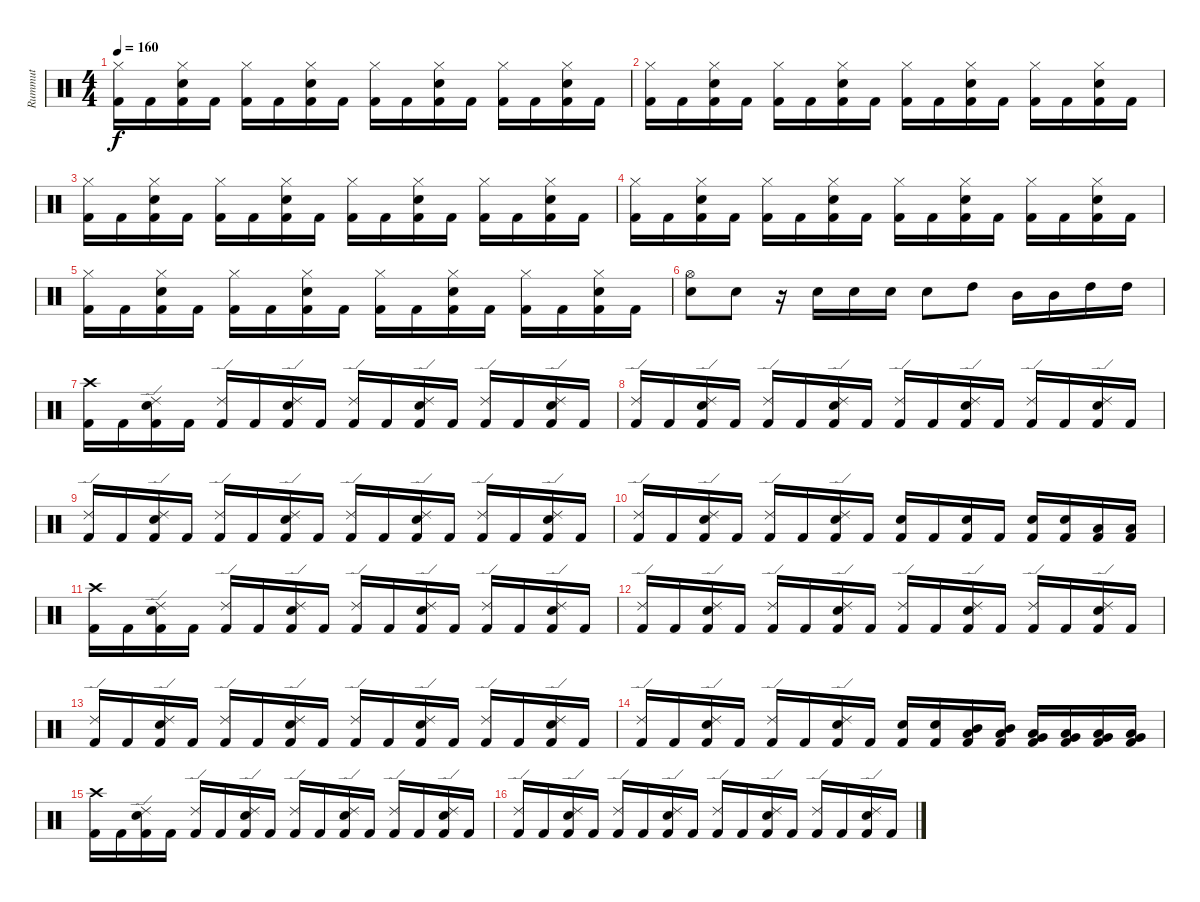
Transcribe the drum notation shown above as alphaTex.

\track ("Rummut" "Rummut") {instrument percussion}
\staff {score}
\articulation defaults
\ts (4 4)
\tempo 160
\clef neutral
\ks c
("Hi-Hat (closed)" "Kick (hit) 2").16{dy f} "Kick (hit) 2".16 ("Hi-Hat (closed)" "Snare (hit) 2" "Kick (hit) 2").16 "Kick (hit) 2".16 ("Hi-Hat (closed)" "Kick (hit) 2").16 "Kick (hit) 2".16 ("Hi-Hat (closed)" "Snare (hit) 2" "Kick (hit) 2").16 "Kick (hit) 2".16 ("Hi-Hat (closed)" "Kick (hit) 2").16 "Kick (hit) 2".16 ("Hi-Hat (closed)" "Snare (hit) 2" "Kick (hit) 2").16 "Kick (hit) 2".16 ("Hi-Hat (closed)" "Kick (hit) 2").16 "Kick (hit) 2".16 ("Hi-Hat (closed)" "Snare (hit) 2" "Kick (hit) 2").16 "Kick (hit) 2".16 |
("Hi-Hat (closed)" "Kick (hit) 2").16 "Kick (hit) 2".16 ("Hi-Hat (closed)" "Snare (hit) 2" "Kick (hit) 2").16 "Kick (hit) 2".16 ("Hi-Hat (closed)" "Kick (hit) 2").16 "Kick (hit) 2".16 ("Hi-Hat (closed)" "Snare (hit) 2" "Kick (hit) 2").16 "Kick (hit) 2".16 ("Hi-Hat (closed)" "Kick (hit) 2").16 "Kick (hit) 2".16 ("Hi-Hat (closed)" "Snare (hit) 2" "Kick (hit) 2").16 "Kick (hit) 2".16 ("Hi-Hat (closed)" "Kick (hit) 2").16 "Kick (hit) 2".16 ("Hi-Hat (closed)" "Snare (hit) 2" "Kick (hit) 2").16 "Kick (hit) 2".16 |
("Hi-Hat (closed)" "Kick (hit) 2").16 "Kick (hit) 2".16 ("Hi-Hat (closed)" "Snare (hit) 2" "Kick (hit) 2").16 "Kick (hit) 2".16 ("Hi-Hat (closed)" "Kick (hit) 2").16 "Kick (hit) 2".16 ("Hi-Hat (closed)" "Snare (hit) 2" "Kick (hit) 2").16 "Kick (hit) 2".16 ("Hi-Hat (closed)" "Kick (hit) 2").16 "Kick (hit) 2".16 ("Hi-Hat (closed)" "Snare (hit) 2" "Kick (hit) 2").16 "Kick (hit) 2".16 ("Hi-Hat (closed)" "Kick (hit) 2").16 "Kick (hit) 2".16 ("Hi-Hat (closed)" "Snare (hit) 2" "Kick (hit) 2").16 "Kick (hit) 2".16 |
("Hi-Hat (closed)" "Kick (hit) 2").16 "Kick (hit) 2".16 ("Hi-Hat (closed)" "Snare (hit) 2" "Kick (hit) 2").16 "Kick (hit) 2".16 ("Hi-Hat (closed)" "Kick (hit) 2").16 "Kick (hit) 2".16 ("Hi-Hat (closed)" "Snare (hit) 2" "Kick (hit) 2").16 "Kick (hit) 2".16 ("Hi-Hat (closed)" "Kick (hit) 2").16 "Kick (hit) 2".16 ("Hi-Hat (closed)" "Snare (hit) 2" "Kick (hit) 2").16 "Kick (hit) 2".16 ("Hi-Hat (closed)" "Kick (hit) 2").16 "Kick (hit) 2".16 ("Hi-Hat (closed)" "Snare (hit) 2" "Kick (hit) 2").16 "Kick (hit) 2".16 |
("Hi-Hat (closed)" "Kick (hit) 2").16 "Kick (hit) 2".16 ("Hi-Hat (closed)" "Snare (hit) 2" "Kick (hit) 2").16 "Kick (hit) 2".16 ("Hi-Hat (closed)" "Kick (hit) 2").16 "Kick (hit) 2".16 ("Hi-Hat (closed)" "Snare (hit) 2" "Kick (hit) 2").16 "Kick (hit) 2".16 ("Hi-Hat (closed)" "Kick (hit) 2").16 "Kick (hit) 2".16 ("Hi-Hat (closed)" "Snare (hit) 2" "Kick (hit) 2").16 "Kick (hit) 2".16 ("Hi-Hat (closed)" "Kick (hit) 2").16 "Kick (hit) 2".16 ("Hi-Hat (closed)" "Snare (hit) 2" "Kick (hit) 2").16 "Kick (hit) 2".16 |
("Snare (hit) 2" "Hi-Hat (open)").8 "Snare (hit) 2".8 r.16 "Snare (hit) 2".16 "Snare (hit) 2".16 "Snare (hit) 2".16 "Snare (hit) 2".8 "High Tom (hit)".8 "Mid Tom (hit)".16 "Mid Tom (hit)".16 "High Tom (hit)".16 "High Tom (hit)".16 |
("Crash high (hit)" "Kick (hit) 2").16 "Kick (hit) 2".16 ("Ride (edge) 2" "Snare (hit) 2" "Kick (hit) 2").16 "Kick (hit) 2".16 ("Ride (edge) 2" "Kick (hit) 2").16 "Kick (hit) 2".16 ("Ride (edge) 2" "Snare (hit) 2" "Kick (hit) 2").16 "Kick (hit) 2".16 ("Ride (edge) 2" "Kick (hit) 2").16 "Kick (hit) 2".16 ("Ride (edge) 2" "Snare (hit) 2" "Kick (hit) 2").16 "Kick (hit) 2".16 ("Ride (edge) 2" "Kick (hit) 2").16 "Kick (hit) 2".16 ("Ride (edge) 2" "Snare (hit) 2" "Kick (hit) 2").16 "Kick (hit) 2".16 |
("Ride (edge) 2" "Kick (hit) 2").16 "Kick (hit) 2".16 ("Ride (edge) 2" "Snare (hit) 2" "Kick (hit) 2").16 "Kick (hit) 2".16 ("Ride (edge) 2" "Kick (hit) 2").16 "Kick (hit) 2".16 ("Ride (edge) 2" "Snare (hit) 2" "Kick (hit) 2").16 "Kick (hit) 2".16 ("Ride (edge) 2" "Kick (hit) 2").16 "Kick (hit) 2".16 ("Ride (edge) 2" "Snare (hit) 2" "Kick (hit) 2").16 "Kick (hit) 2".16 ("Ride (edge) 2" "Kick (hit) 2").16 "Kick (hit) 2".16 ("Ride (edge) 2" "Snare (hit) 2" "Kick (hit) 2").16 "Kick (hit) 2".16 |
("Ride (edge) 2" "Kick (hit) 2").16 "Kick (hit) 2".16 ("Ride (edge) 2" "Snare (hit) 2" "Kick (hit) 2").16 "Kick (hit) 2".16 ("Ride (edge) 2" "Kick (hit) 2").16 "Kick (hit) 2".16 ("Ride (edge) 2" "Snare (hit) 2" "Kick (hit) 2").16 "Kick (hit) 2".16 ("Ride (edge) 2" "Kick (hit) 2").16 "Kick (hit) 2".16 ("Ride (edge) 2" "Snare (hit) 2" "Kick (hit) 2").16 "Kick (hit) 2".16 ("Ride (edge) 2" "Kick (hit) 2").16 "Kick (hit) 2".16 ("Ride (edge) 2" "Snare (hit) 2" "Kick (hit) 2").16 "Kick (hit) 2".16 |
("Ride (edge) 2" "Kick (hit) 2").16 "Kick (hit) 2".16 ("Ride (edge) 2" "Snare (hit) 2" "Kick (hit) 2").16 "Kick (hit) 2".16 ("Ride (edge) 2" "Kick (hit) 2").16 "Kick (hit) 2".16 ("Ride (edge) 2" "Snare (hit) 2" "Kick (hit) 2").16 "Kick (hit) 2".16 ("Snare (hit) 2" "Kick (hit) 2").16 "Kick (hit) 2".16 ("Snare (hit) 2" "Kick (hit) 2").16 "Kick (hit) 2".16 ("Snare (hit) 2" "Kick (hit) 2").16 ("Snare (hit) 2" "Kick (hit) 2").16 ("Low Tom (hit)" "Kick (hit) 2").16 ("Low Tom (hit)" "Kick (hit) 2").16 |
("Crash high (hit)" "Kick (hit) 2").16 "Kick (hit) 2".16 ("Ride (edge) 2" "Snare (hit) 2" "Kick (hit) 2").16 "Kick (hit) 2".16 ("Ride (edge) 2" "Kick (hit) 2").16 "Kick (hit) 2".16 ("Ride (edge) 2" "Snare (hit) 2" "Kick (hit) 2").16 "Kick (hit) 2".16 ("Ride (edge) 2" "Kick (hit) 2").16 "Kick (hit) 2".16 ("Ride (edge) 2" "Snare (hit) 2" "Kick (hit) 2").16 "Kick (hit) 2".16 ("Ride (edge) 2" "Kick (hit) 2").16 "Kick (hit) 2".16 ("Ride (edge) 2" "Snare (hit) 2" "Kick (hit) 2").16 "Kick (hit) 2".16 |
("Ride (edge) 2" "Kick (hit) 2").16 "Kick (hit) 2".16 ("Ride (edge) 2" "Snare (hit) 2" "Kick (hit) 2").16 "Kick (hit) 2".16 ("Ride (edge) 2" "Kick (hit) 2").16 "Kick (hit) 2".16 ("Ride (edge) 2" "Snare (hit) 2" "Kick (hit) 2").16 "Kick (hit) 2".16 ("Ride (edge) 2" "Kick (hit) 2").16 "Kick (hit) 2".16 ("Ride (edge) 2" "Snare (hit) 2" "Kick (hit) 2").16 "Kick (hit) 2".16 ("Ride (edge) 2" "Kick (hit) 2").16 "Kick (hit) 2".16 ("Ride (edge) 2" "Snare (hit) 2" "Kick (hit) 2").16 "Kick (hit) 2".16 |
("Ride (edge) 2" "Kick (hit) 2").16 "Kick (hit) 2".16 ("Ride (edge) 2" "Snare (hit) 2" "Kick (hit) 2").16 "Kick (hit) 2".16 ("Ride (edge) 2" "Kick (hit) 2").16 "Kick (hit) 2".16 ("Ride (edge) 2" "Snare (hit) 2" "Kick (hit) 2").16 "Kick (hit) 2".16 ("Ride (edge) 2" "Kick (hit) 2").16 "Kick (hit) 2".16 ("Ride (edge) 2" "Snare (hit) 2" "Kick (hit) 2").16 "Kick (hit) 2".16 ("Ride (edge) 2" "Kick (hit) 2").16 "Kick (hit) 2".16 ("Ride (edge) 2" "Snare (hit) 2" "Kick (hit) 2").16 "Kick (hit) 2".16 |
("Ride (edge) 2" "Kick (hit) 2").16 "Kick (hit) 2".16 ("Ride (edge) 2" "Snare (hit) 2" "Kick (hit) 2").16 "Kick (hit) 2".16 ("Ride (edge) 2" "Kick (hit) 2").16 "Kick (hit) 2".16 ("Ride (edge) 2" "Snare (hit) 2" "Kick (hit) 2").16 "Kick (hit) 2".16 ("Snare (hit) 2" "Kick (hit) 2").16 ("Snare (hit) 2" "Kick (hit) 2").16 ("Low Tom (hit)" "Mid Tom (hit)" "Kick (hit) 2").16 ("Low Tom (hit)" "Mid Tom (hit)" "Kick (hit) 2").16 ("Very Low Tom (hit)" "Low Tom (hit)" "Kick (hit) 2").16 ("Very Low Tom (hit)" "Low Tom (hit)" "Kick (hit) 2").16 ("Low Floor Tom (hit)" "Very Low Tom (hit)" "Kick (hit) 2").16 ("Low Floor Tom (hit)" "Very Low Tom (hit)" "Kick (hit) 2").16 |
("Crash high (hit)" "Kick (hit) 2").16 "Kick (hit) 2".16 ("Ride (edge) 2" "Snare (hit) 2" "Kick (hit) 2").16 "Kick (hit) 2".16 ("Ride (edge) 2" "Kick (hit) 2").16 "Kick (hit) 2".16 ("Ride (edge) 2" "Snare (hit) 2" "Kick (hit) 2").16 "Kick (hit) 2".16 ("Ride (edge) 2" "Kick (hit) 2").16 "Kick (hit) 2".16 ("Ride (edge) 2" "Snare (hit) 2" "Kick (hit) 2").16 "Kick (hit) 2".16 ("Ride (edge) 2" "Kick (hit) 2").16 "Kick (hit) 2".16 ("Ride (edge) 2" "Snare (hit) 2" "Kick (hit) 2").16 "Kick (hit) 2".16 |
("Ride (edge) 2" "Kick (hit) 2").16 "Kick (hit) 2".16 ("Ride (edge) 2" "Snare (hit) 2" "Kick (hit) 2").16 "Kick (hit) 2".16 ("Ride (edge) 2" "Kick (hit) 2").16 "Kick (hit) 2".16 ("Ride (edge) 2" "Snare (hit) 2" "Kick (hit) 2").16 "Kick (hit) 2".16 ("Ride (edge) 2" "Kick (hit) 2").16 "Kick (hit) 2".16 ("Ride (edge) 2" "Snare (hit) 2" "Kick (hit) 2").16 "Kick (hit) 2".16 ("Ride (edge) 2" "Kick (hit) 2").16 "Kick (hit) 2".16 ("Ride (edge) 2" "Snare (hit) 2" "Kick (hit) 2").16 "Kick (hit) 2".16
